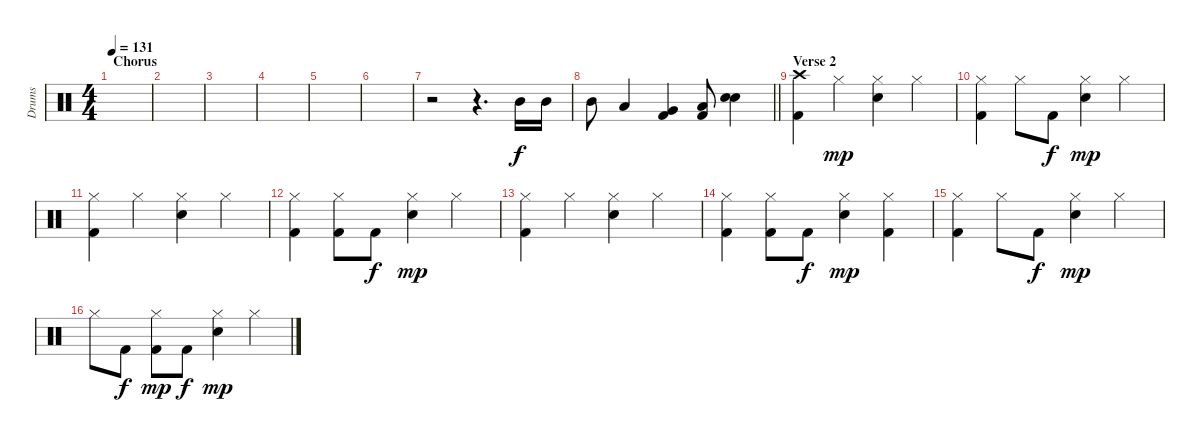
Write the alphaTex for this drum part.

\track ("Drums" "Drums") {instrument percussion}
\staff {score}
\articulation defaults
\ts (4 4)
\section ("" "Chorus")
\tempo 131
\clef neutral
\ks c
|
|
|
|
|
|
r.2 r.4{d} "Mid Tom (hit)".16 "Mid Tom (hit)".16 |
\barLineRight lightlight "Mid Tom (hit)".8 "Low Tom (hit)".4
("Very Low Tom (hit)" "Kick (hit) 2").4 ("Low Floor Tom (hit)" "Kick (hit) 2").8 ("Electric Snare (hit)" "Electric Snare (hit)").4 |
\section ("" "Verse 2")
("Crash high (hit)" "Kick (hit) 2").4 "Hi-Hat (closed)".4{dy mp} ("Hi-Hat (closed)" "Electric Snare (hit)").4 "Hi-Hat (closed)".4 |
("Hi-Hat (closed)" "Kick (hit) 2").4 "Hi-Hat (closed)".8 "Kick (hit) 2".8{dy f} ("Hi-Hat (closed)" "Electric Snare (hit)").4{dy mp} "Hi-Hat (closed)".4 |
("Hi-Hat (closed)" "Kick (hit) 2").4 "Hi-Hat (closed)".4 ("Hi-Hat (closed)" "Electric Snare (hit)").4 "Hi-Hat (closed)".4 |
("Hi-Hat (closed)" "Kick (hit) 2").4 ("Hi-Hat (closed)" "Kick (hit) 2").8 "Kick (hit) 2".8{dy f} ("Hi-Hat (closed)" "Electric Snare (hit)").4{dy mp} "Hi-Hat (closed)".4 |
("Hi-Hat (closed)" "Kick (hit) 2").4 "Hi-Hat (closed)".4 ("Hi-Hat (closed)" "Electric Snare (hit)").4 "Hi-Hat (closed)".4 |
("Hi-Hat (closed)" "Kick (hit) 2").4 ("Hi-Hat (closed)" "Kick (hit) 2").8 "Kick (hit) 2".8{dy f} ("Hi-Hat (closed)" "Electric Snare (hit)").4{dy mp} ("Hi-Hat (closed)" "Kick (hit) 2").4 |
("Hi-Hat (closed)" "Kick (hit) 2").4 "Hi-Hat (closed)".8 "Kick (hit) 2".8{dy f} ("Hi-Hat (closed)" "Electric Snare (hit)").4{dy mp} "Hi-Hat (closed)".4 |
"Hi-Hat (closed)".8 "Kick (hit) 2".8{dy f} ("Hi-Hat (closed)" "Kick (hit) 2").8{dy mp} "Kick (hit) 2".8{dy f} ("Hi-Hat (closed)" "Electric Snare (hit)").4{dy mp} "Hi-Hat (closed)".4
